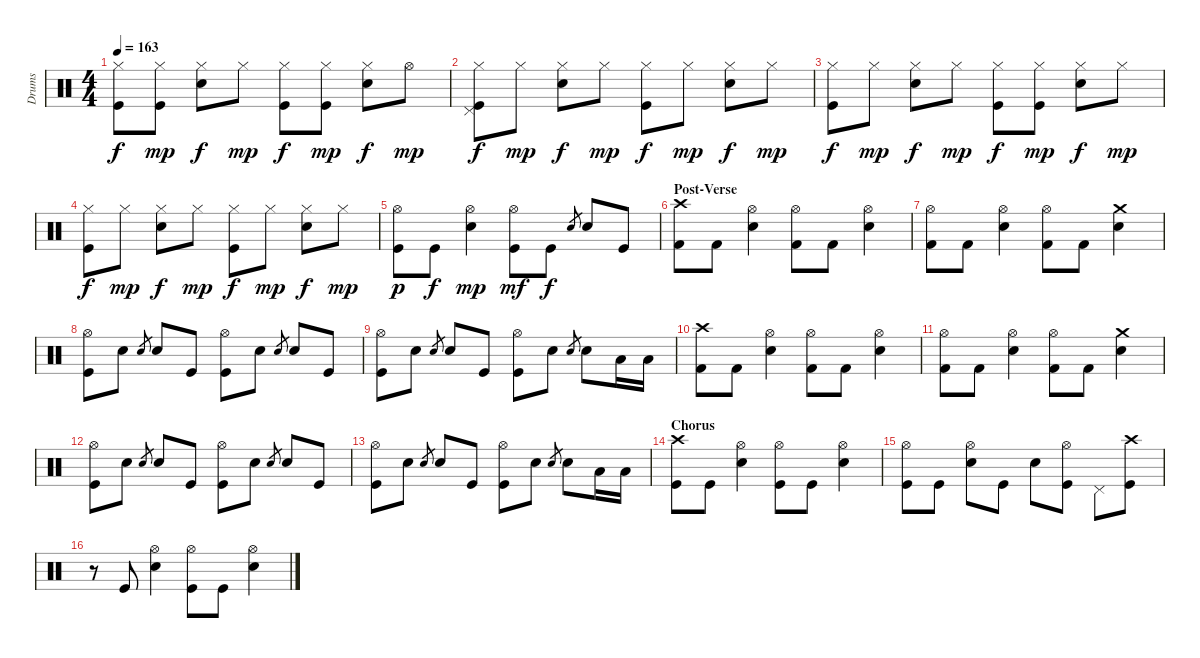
\track ("Drums" "Drums") {instrument percussion}
\staff {score}
\articulation defaults
\ts (4 4)
\tempo 163
\clef neutral
\ks c
("Hi-Hat (closed)" "Kick (hit)").8{dy f} ("Hi-Hat (closed)" "Kick (hit)").8{dy mp} ("Hi-Hat (closed)" "Electric Snare (hit)").8{dy f} "Hi-Hat (closed)".8{dy mp} ("Hi-Hat (closed)" "Kick (hit)").8{dy f} ("Hi-Hat (closed)" "Kick (hit)").8{dy mp} ("Hi-Hat (closed)" "Electric Snare (hit)").8{dy f} "Hi-Hat (open)".8{dy mp} |
("Hi-Hat (closed)" "Pedal Hi-Hat (hit)" "Kick (hit)").8{dy f} "Hi-Hat (closed)".8{dy mp} ("Hi-Hat (closed)" "Electric Snare (hit)").8{dy f} "Hi-Hat (closed)".8{dy mp} ("Hi-Hat (closed)" "Kick (hit)").8{dy f} "Hi-Hat (closed)".8{dy mp} ("Hi-Hat (closed)" "Electric Snare (hit)").8{dy f} "Hi-Hat (closed)".8{dy mp} |
("Hi-Hat (closed)" "Kick (hit)").8{dy f} "Hi-Hat (closed)".8{dy mp} ("Hi-Hat (closed)" "Electric Snare (hit)").8{dy f} "Hi-Hat (closed)".8{dy mp} ("Hi-Hat (closed)" "Kick (hit)").8{dy f} ("Hi-Hat (closed)" "Kick (hit)").8{dy mp} ("Hi-Hat (closed)" "Electric Snare (hit)").8{dy f} "Hi-Hat (closed)".8{dy mp} |
("Hi-Hat (closed)" "Kick (hit)").8{dy f} "Hi-Hat (closed)".8{dy mp} ("Hi-Hat (closed)" "Electric Snare (hit)").8{dy f} "Hi-Hat (closed)".8{dy mp} ("Hi-Hat (closed)" "Kick (hit)").8{dy f} "Hi-Hat (closed)".8{dy mp} ("Hi-Hat (closed)" "Electric Snare (hit)").8{dy f} "Hi-Hat (closed)".8{dy mp} |
("Hi-Hat (open)" "Kick (hit)").8{dy p} "Kick (hit)".8{dy f} ("Hi-Hat (open)" "Electric Snare (hit)").4{dy mp} ("Hi-Hat (open)" "Kick (hit)").8{dy mf} "Kick (hit)".8{dy f} "Electric Snare (hit)".8{gr} "Electric Snare (hit)".8 "Kick (hit)".8 |
\section ("" "Post-Verse")
("Crash high (hit)" "Kick (hit) 2").8 "Kick (hit) 2".8 ("Hi-Hat (open)" "Electric Snare (hit)").4 ("Hi-Hat (open)" "Kick (hit) 2").8 "Kick (hit) 2".8 ("Hi-Hat (open)" "Electric Snare (hit)").4 |
("Hi-Hat (open)" "Kick (hit) 2").8 "Kick (hit) 2".8 ("Hi-Hat (open)" "Electric Snare (hit)").4 ("Hi-Hat (open)" "Kick (hit) 2").8 "Kick (hit) 2".8 ("Crash medium (hit)" "Electric Snare (hit)").4 |
("Hi-Hat (open)" "Kick (hit)").8 "Electric Snare (hit)".8 "Electric Snare (hit)".8{gr} "Electric Snare (hit)".8 "Kick (hit)".8 ("Hi-Hat (open)" "Kick (hit)").8 "Electric Snare (hit)".8 "Electric Snare (hit)".8{gr} "Electric Snare (hit)".8 "Kick (hit)".8 |
("Hi-Hat (open)" "Kick (hit)").8 "Electric Snare (hit)".8 "Electric Snare (hit)".8{gr} "Electric Snare (hit)".8 "Kick (hit)".8 ("Hi-Hat (open)" "Kick (hit)").8 "Electric Snare (hit)".8 "Electric Snare (hit)".8{gr} "Electric Snare (hit)".8 "Low Tom (hit)".16 "Low Tom (hit)".16 |
("Crash high (hit)" "Kick (hit) 2").8 "Kick (hit) 2".8 ("Hi-Hat (open)" "Electric Snare (hit)").4 ("Hi-Hat (open)" "Kick (hit) 2").8 "Kick (hit) 2".8 ("Hi-Hat (open)" "Electric Snare (hit)").4 |
("Hi-Hat (open)" "Kick (hit) 2").8 "Kick (hit) 2".8 ("Hi-Hat (open)" "Electric Snare (hit)").4 ("Hi-Hat (open)" "Kick (hit) 2").8 "Kick (hit) 2".8 ("Crash medium (hit)" "Electric Snare (hit)").4 |
("Hi-Hat (open)" "Kick (hit)").8 "Electric Snare (hit)".8 "Electric Snare (hit)".8{gr} "Electric Snare (hit)".8 "Kick (hit)".8 ("Hi-Hat (open)" "Kick (hit)").8 "Electric Snare (hit)".8 "Electric Snare (hit)".8{gr} "Electric Snare (hit)".8 "Kick (hit)".8 |
("Hi-Hat (open)" "Kick (hit)").8 "Electric Snare (hit)".8 "Electric Snare (hit)".8{gr} "Electric Snare (hit)".8 "Kick (hit)".8 ("Hi-Hat (open)" "Kick (hit)").8 "Electric Snare (hit)".8 "Electric Snare (hit)".8{gr} "Electric Snare (hit)".8 "Low Tom (hit)".16 "Low Tom (hit)".16 |
\section ("" "Chorus")
("Crash high (hit)" "Kick (hit)").8 "Kick (hit)".8 ("Hi-Hat (open)" "Electric Snare (hit)").4 ("Hi-Hat (open)" "Kick (hit)").8 "Kick (hit)".8 ("Hi-Hat (open)" "Electric Snare (hit)").4 |
("Hi-Hat (open)" "Kick (hit)").8 "Kick (hit)".8 ("Hi-Hat (open)" "Electric Snare (hit)").8 "Kick (hit)".8 "Electric Snare (hit)".8 ("Hi-Hat (open)" "Kick (hit)").8 "Pedal Hi-Hat (hit)".8 ("Crash high (hit)" "Kick (hit)").8 |
r.8 "Kick (hit)".8 ("Hi-Hat (open)" "Electric Snare (hit)").4 ("Hi-Hat (open)" "Kick (hit)").8 "Kick (hit)".8 ("Hi-Hat (open)" "Electric Snare (hit)").4
